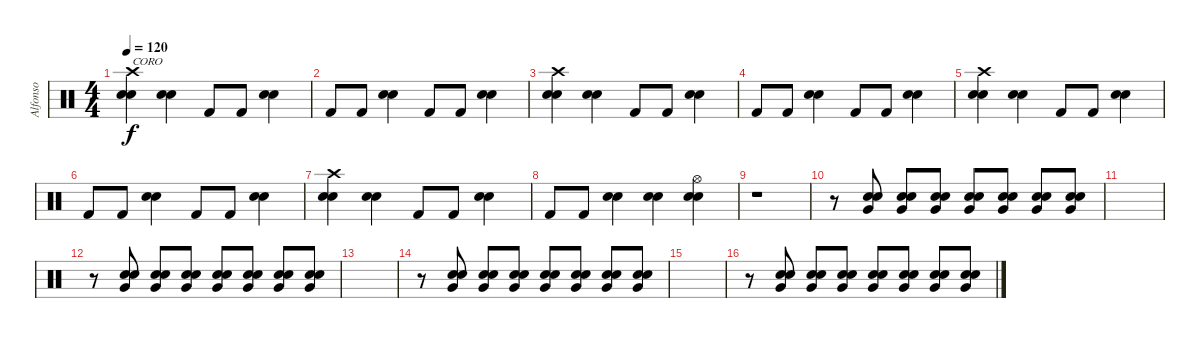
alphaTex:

\track ("Alfonso" "Alfonso") {instrument percussion}
\staff {score}
\articulation defaults
\ts (4 4)
\tempo 120
\clef neutral
\ks c
("Snare (hit) 2" "Crash high (hit)" "Electric Snare (hit)").4{txt "CORO" dy f} ("Electric Snare (hit)" "Electric Snare (hit)").4 "Kick (hit) 2".8 "Kick (hit) 2".8 ("Electric Snare (hit)" "Electric Snare (hit)").4 |
"Kick (hit) 2".8 "Kick (hit) 2".8 ("Electric Snare (hit)" "Electric Snare (hit)").4 "Kick (hit) 2".8 "Kick (hit) 2".8 ("Electric Snare (hit)" "Electric Snare (hit)").4 |
("Snare (hit) 2" "Crash high (hit)" "Electric Snare (hit)").4 ("Electric Snare (hit)" "Electric Snare (hit)").4 "Kick (hit) 2".8 "Kick (hit) 2".8 ("Electric Snare (hit)" "Electric Snare (hit)").4 |
"Kick (hit) 2".8 "Kick (hit) 2".8 ("Electric Snare (hit)" "Electric Snare (hit)").4 "Kick (hit) 2".8 "Kick (hit) 2".8 ("Electric Snare (hit)" "Electric Snare (hit)").4 |
("Snare (hit) 2" "Crash high (hit)" "Electric Snare (hit)").4 ("Electric Snare (hit)" "Electric Snare (hit)").4 "Kick (hit) 2".8 "Kick (hit) 2".8 ("Electric Snare (hit)" "Electric Snare (hit)").4 |
"Kick (hit) 2".8 "Kick (hit) 2".8 ("Electric Snare (hit)" "Electric Snare (hit)").4 "Kick (hit) 2".8 "Kick (hit) 2".8 ("Electric Snare (hit)" "Electric Snare (hit)").4 |
("Snare (hit) 2" "Crash high (hit)" "Electric Snare (hit)").4 ("Electric Snare (hit)" "Electric Snare (hit)").4 "Kick (hit) 2".8 "Kick (hit) 2".8 ("Electric Snare (hit)" "Electric Snare (hit)").4 |
"Kick (hit) 2".8 "Kick (hit) 2".8 ("Electric Snare (hit)" "Electric Snare (hit)").4 ("Electric Snare (hit)" "Electric Snare (hit)").4 ("Electric Snare (hit)" "Hi-Hat (open)" "Electric Snare (hit)").4 |
r.1 |
r.8 ("Electric Snare (hit)" "Snare (hit) 2" "Very Low Tom (hit)").8 ("Electric Snare (hit)" "Snare (hit) 2" "Very Low Tom (hit)").8 ("Electric Snare (hit)" "Snare (hit) 2" "Very Low Tom (hit)").8 ("Electric Snare (hit)" "Snare (hit) 2" "Very Low Tom (hit)").8 ("Electric Snare (hit)" "Snare (hit) 2" "Very Low Tom (hit)").8 ("Electric Snare (hit)" "Snare (hit) 2" "Very Low Tom (hit)").8 ("Electric Snare (hit)" "Snare (hit) 2" "Very Low Tom (hit)").8 |
|
r.8 ("Electric Snare (hit)" "Snare (hit) 2" "Very Low Tom (hit)").8 ("Electric Snare (hit)" "Snare (hit) 2" "Very Low Tom (hit)").8 ("Electric Snare (hit)" "Snare (hit) 2" "Very Low Tom (hit)").8 ("Electric Snare (hit)" "Snare (hit) 2" "Very Low Tom (hit)").8 ("Electric Snare (hit)" "Snare (hit) 2" "Very Low Tom (hit)").8 ("Electric Snare (hit)" "Snare (hit) 2" "Very Low Tom (hit)").8 ("Electric Snare (hit)" "Snare (hit) 2" "Very Low Tom (hit)").8 |
|
r.8 ("Electric Snare (hit)" "Snare (hit) 2" "Very Low Tom (hit)").8 ("Electric Snare (hit)" "Snare (hit) 2" "Very Low Tom (hit)").8 ("Electric Snare (hit)" "Snare (hit) 2" "Very Low Tom (hit)").8 ("Electric Snare (hit)" "Snare (hit) 2" "Very Low Tom (hit)").8 ("Electric Snare (hit)" "Snare (hit) 2" "Very Low Tom (hit)").8 ("Electric Snare (hit)" "Snare (hit) 2" "Very Low Tom (hit)").8 ("Electric Snare (hit)" "Snare (hit) 2" "Very Low Tom (hit)").8 |
|
r.8 ("Electric Snare (hit)" "Snare (hit) 2" "Very Low Tom (hit)").8 ("Electric Snare (hit)" "Snare (hit) 2" "Very Low Tom (hit)").8 ("Electric Snare (hit)" "Snare (hit) 2" "Very Low Tom (hit)").8 ("Electric Snare (hit)" "Snare (hit) 2" "Very Low Tom (hit)").8 ("Electric Snare (hit)" "Snare (hit) 2" "Very Low Tom (hit)").8 ("Electric Snare (hit)" "Snare (hit) 2" "Very Low Tom (hit)").8 ("Electric Snare (hit)" "Snare (hit) 2" "Very Low Tom (hit)").8
